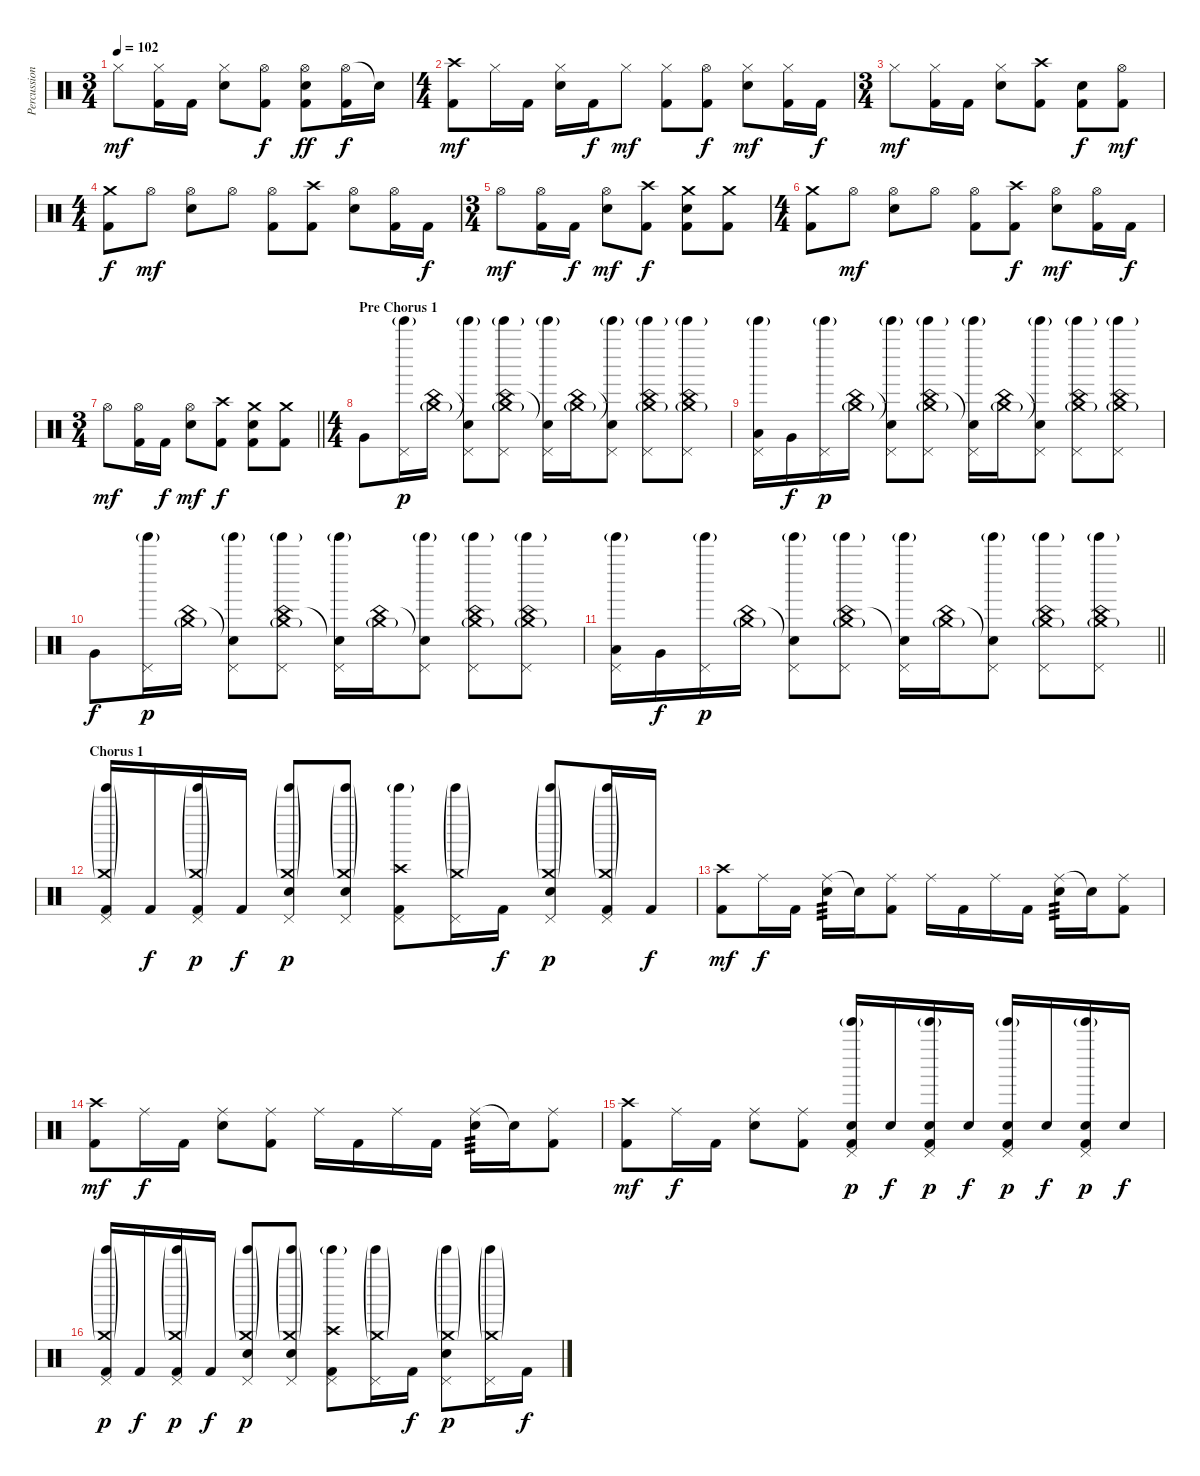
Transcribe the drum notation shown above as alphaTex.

\track ("Percussions" "Percussion") {instrument percussion}
\staff {score}
\articulation defaults
\ts (3 4)
\tempo 102
\clef neutral
\ks c "Hi-Hat (closed)".8{dy mf}
("Hi-Hat (closed)" "Kick (hit) 2").16 "Kick (hit) 2".16 ("Hi-Hat (closed)" "Electric Snare (hit)").8 ("Hi-Hat (open)" "Kick (hit) 2").8{dy f} ("Hi-Hat (open)" "Electric Snare (hit)" "Kick (hit) 2").8{dy ff} ("Hi-Hat (open)" "Kick (hit) 2").16{dy f} "Snare (hit)"{t}.16 |
\ts (4 4)
("Crash high (hit)" "Kick (hit) 2").8{dy mf} "Hi-Hat (closed)".16 "Kick (hit) 2".16 ("Hi-Hat (closed)" "Electric Snare (hit)").16 "Kick (hit) 2".16{dy f} "Hi-Hat (closed)".8{dy mf} ("Hi-Hat (closed)" "Kick (hit) 2").8 ("Hi-Hat (open)" "Kick (hit) 2").8{dy f} ("Hi-Hat (closed)" "Electric Snare (hit)").8{dy mf} ("Hi-Hat (closed)" "Kick (hit) 2").16 "Kick (hit) 2".16{dy f} |
\ts (3 4)
"Hi-Hat (closed)".8{dy mf} ("Hi-Hat (closed)" "Kick (hit) 2").16 "Kick (hit) 2".16 ("Hi-Hat (closed)" "Electric Snare (hit)").8 ("Crash high (hit)" "Kick (hit) 2").8 ("Electric Snare (hit)" "Kick (hit) 2").8{dy f} ("Hi-Hat (open)" "Kick (hit) 2").8{dy mf} |
\ts (4 4)
("Crash medium (hit)" "Kick (hit) 2").8{dy f} "Hi-Hat (open)".8{dy mf} ("Hi-Hat (open)" "Electric Snare (hit)").8 "Hi-Hat (open)".8 ("Hi-Hat (open)" "Kick (hit) 2").8 ("Crash high (hit)" "Kick (hit) 2").8 ("Hi-Hat (open)" "Electric Snare (hit)").8 ("Hi-Hat (open)" "Kick (hit) 2").16 "Kick (hit) 2".16{dy f} |
\ts (3 4)
"Hi-Hat (open)".8{dy mf} ("Hi-Hat (open)" "Kick (hit) 2").16 "Kick (hit) 2".16{dy f} ("Hi-Hat (open)" "Electric Snare (hit)").8{dy mf} ("Crash high (hit)" "Kick (hit) 2").8{dy f} ("Crash medium (hit)" "Electric Snare (hit)" "Kick (hit) 2").8 ("Crash medium (hit)" "Kick (hit) 2").8 |
\ts (4 4)
("Crash medium (hit)" "Kick (hit) 2").8 "Hi-Hat (open)".8{dy mf} ("Hi-Hat (open)" "Electric Snare (hit)").8 "Hi-Hat (open)".8 ("Hi-Hat (open)" "Kick (hit) 2").8 ("Crash high (hit)" "Kick (hit) 2").8{dy f} ("Hi-Hat (open)" "Electric Snare (hit)").8{dy mf} ("Hi-Hat (open)" "Kick (hit) 2").16 "Kick (hit) 2".16{dy f} |
\ts (3 4)
\barLineRight lightlight "Hi-Hat (open)".8{dy mf}
("Hi-Hat (open)" "Kick (hit) 2").16 "Kick (hit) 2".16{dy f} ("Hi-Hat (open)" "Electric Snare (hit)").8{dy mf} ("Crash high (hit)" "Kick (hit) 2").8{dy f} ("Crash medium (hit)" "Electric Snare (hit)" "Kick (hit) 2").8 ("Crash medium (hit)" "Kick (hit) 2").8 |
\ts (4 4)
\section ("" "Pre Chorus 1")
"Very Low Tom (hit)".8 ("Tinkle Bell (hit)"{g} "Pedal Hi-Hat (hit)").16{dy p} ("China (hit)" "Crash medium (hit)"{g}).16 ("Snare (hit)"{t} "Tinkle Bell (hit)"{g} "Pedal Hi-Hat (hit)").8 ("China (hit)" "Crash medium (hit)"{g} "Tinkle Bell (hit)"{g} "Pedal Hi-Hat (hit)").8 ("Snare (hit)"{t} "Tinkle Bell (hit)"{g} "Pedal Hi-Hat (hit)").16 ("China (hit)" "Crash medium (hit)"{g}).16 ("Snare (hit)"{t} "Tinkle Bell (hit)"{g} "Pedal Hi-Hat (hit)").8 ("China (hit)" "Crash medium (hit)"{g} "Tinkle Bell (hit)"{g} "Pedal Hi-Hat (hit)").8 ("China (hit)" "Crash medium (hit)"{g} "Tinkle Bell (hit)"{g} "Pedal Hi-Hat (hit)").8 |
("Tinkle Bell (hit)"{g} "Pedal Hi-Hat (hit)" "Low Floor Tom (hit)").16 "Very Low Tom (hit)".16{dy f} ("Tinkle Bell (hit)"{g} "Pedal Hi-Hat (hit)").16{dy p} ("China (hit)" "Crash medium (hit)"{g}).16 ("Snare (hit)"{t} "Tinkle Bell (hit)"{g} "Pedal Hi-Hat (hit)").8 ("China (hit)" "Crash medium (hit)"{g} "Tinkle Bell (hit)"{g} "Pedal Hi-Hat (hit)").8 ("Snare (hit)"{t} "Tinkle Bell (hit)"{g} "Pedal Hi-Hat (hit)").16 ("China (hit)" "Crash medium (hit)"{g}).16 ("Snare (hit)"{t} "Tinkle Bell (hit)"{g} "Pedal Hi-Hat (hit)").8 ("China (hit)" "Crash medium (hit)"{g} "Tinkle Bell (hit)"{g} "Pedal Hi-Hat (hit)").8 ("China (hit)" "Crash medium (hit)"{g} "Tinkle Bell (hit)"{g} "Pedal Hi-Hat (hit)").8 |
"Very Low Tom (hit)".8{dy f} ("Tinkle Bell (hit)"{g} "Pedal Hi-Hat (hit)").16{dy p} ("China (hit)" "Crash medium (hit)"{g}).16 ("Snare (hit)"{t} "Tinkle Bell (hit)"{g} "Pedal Hi-Hat (hit)").8 ("China (hit)" "Crash medium (hit)"{g} "Tinkle Bell (hit)"{g} "Pedal Hi-Hat (hit)").8 ("Snare (hit)"{t} "Tinkle Bell (hit)"{g} "Pedal Hi-Hat (hit)").16 ("China (hit)" "Crash medium (hit)"{g}).16 ("Snare (hit)"{t} "Tinkle Bell (hit)"{g} "Pedal Hi-Hat (hit)").8 ("China (hit)" "Crash medium (hit)"{g} "Tinkle Bell (hit)"{g} "Pedal Hi-Hat (hit)").8 ("China (hit)" "Crash medium (hit)"{g} "Tinkle Bell (hit)"{g} "Pedal Hi-Hat (hit)").8 |
\barLineRight lightlight
("Tinkle Bell (hit)"{g} "Pedal Hi-Hat (hit)" "Low Floor Tom (hit)").16 "Very Low Tom (hit)".16{dy f} ("Tinkle Bell (hit)"{g} "Pedal Hi-Hat (hit)").16{dy p} ("China (hit)" "Crash medium (hit)"{g}).16 ("Snare (hit)"{t} "Tinkle Bell (hit)"{g} "Pedal Hi-Hat (hit)").8 ("China (hit)" "Crash medium (hit)"{g} "Tinkle Bell (hit)"{g} "Pedal Hi-Hat (hit)").8 ("Snare (hit)"{t} "Tinkle Bell (hit)"{g} "Pedal Hi-Hat (hit)").16 ("China (hit)" "Crash medium (hit)"{g}).16 ("Snare (hit)"{t} "Tinkle Bell (hit)"{g} "Pedal Hi-Hat (hit)").8 ("China (hit)" "Crash medium (hit)"{g} "Tinkle Bell (hit)"{g} "Pedal Hi-Hat (hit)").8 ("China (hit)" "Crash medium (hit)"{g} "Tinkle Bell (hit)"{g} "Pedal Hi-Hat (hit)").8 |
\section ("" "Chorus 1")
("Crash medium (hit)"{g} "Tinkle Bell (hit)"{g} "Pedal Hi-Hat (hit)" "Kick (hit) 2").16 "Kick (hit) 2".16{dy f} ("Crash medium (hit)"{g} "Tinkle Bell (hit)"{g} "Pedal Hi-Hat (hit)" "Kick (hit) 2").16{dy p} "Kick (hit) 2".16{dy f} ("Crash medium (hit)"{g} "Tinkle Bell (hit)"{g} "Pedal Hi-Hat (hit)" "Electric Snare (hit)").8{dy p} ("Crash medium (hit)"{g} "Tinkle Bell (hit)"{g} "Pedal Hi-Hat (hit)" "Electric Snare (hit)").8 ("Crash high (hit)" "Tinkle Bell (hit)"{g} "Pedal Hi-Hat (hit)" "Kick (hit) 2").8 ("Crash medium (hit)"{g} "Tinkle Bell (hit)"{g} "Pedal Hi-Hat (hit)").16 "Kick (hit) 2".16{dy f} ("Crash medium (hit)"{g} "Tinkle Bell (hit)"{g} "Pedal Hi-Hat (hit)" "Electric Snare (hit)").8{dy p} ("Crash medium (hit)"{g} "Tinkle Bell (hit)"{g} "Pedal Hi-Hat (hit)" "Kick (hit) 2").16 "Kick (hit) 2".16{dy f} |
("Crash high (hit)" "Kick (hit) 2").8{dy mf} "Ride (middle)".16{dy f} "Kick (hit) 2".16 ("Ride (middle)" "Electric Snare (hit)").16{tp 3} "Snare (hit)"{t}.16 ("Ride (middle)" "Kick (hit) 2").8 "Ride (middle)".16 "Kick (hit) 2".16 "Ride (middle)".16 "Kick (hit) 2".16 ("Ride (middle)" "Electric Snare (hit)").16{tp 3} "Snare (hit)"{t}.16 ("Ride (middle)" "Kick (hit) 2").8 |
("Crash high (hit)" "Kick (hit) 2").8{dy mf} "Ride (middle)".16{dy f} "Kick (hit) 2".16 ("Ride (middle)" "Electric Snare (hit)").8 ("Ride (middle)" "Kick (hit) 2").8 "Ride (middle)".16 "Kick (hit) 2".16 "Ride (middle)".16 "Kick (hit) 2".16 ("Ride (middle)" "Electric Snare (hit)").16{tp 3} "Snare (hit)"{t}.16 ("Ride (middle)" "Kick (hit) 2").8 |
("Crash high (hit)" "Kick (hit) 2").8{dy mf} "Ride (middle)".16{dy f} "Kick (hit) 2".16 ("Ride (middle)" "Electric Snare (hit)").8 ("Ride (middle)" "Kick (hit) 2").8 ("Tinkle Bell (hit)"{g} "Pedal Hi-Hat (hit)" "Electric Snare (hit)" "Kick (hit) 2").16{dy p} "Electric Snare (hit)".16{dy f} ("Tinkle Bell (hit)"{g} "Pedal Hi-Hat (hit)" "Electric Snare (hit)" "Kick (hit) 2").16{dy p} "Electric Snare (hit)".16{dy f} ("Tinkle Bell (hit)"{g} "Pedal Hi-Hat (hit)" "Electric Snare (hit)" "Kick (hit) 2").16{dy p} "Electric Snare (hit)".16{dy f} ("Tinkle Bell (hit)"{g} "Pedal Hi-Hat (hit)" "Electric Snare (hit)" "Kick (hit) 2").16{dy p} "Electric Snare (hit)".16{dy f} |
("Crash medium (hit)"{g} "Tinkle Bell (hit)"{g} "Pedal Hi-Hat (hit)" "Kick (hit) 2").16{dy p} "Kick (hit) 2".16{dy f} ("Crash medium (hit)"{g} "Tinkle Bell (hit)"{g} "Pedal Hi-Hat (hit)" "Kick (hit) 2").16{dy p} "Kick (hit) 2".16{dy f} ("Crash medium (hit)"{g} "Tinkle Bell (hit)"{g} "Pedal Hi-Hat (hit)" "Electric Snare (hit)").8{dy p} ("Crash medium (hit)"{g} "Tinkle Bell (hit)"{g} "Pedal Hi-Hat (hit)" "Electric Snare (hit)").8 ("Crash high (hit)" "Tinkle Bell (hit)"{g} "Pedal Hi-Hat (hit)" "Kick (hit) 2").8 ("Crash medium (hit)"{g} "Tinkle Bell (hit)"{g} "Pedal Hi-Hat (hit)").16 "Kick (hit) 2".16{dy f} ("Crash medium (hit)"{g} "Tinkle Bell (hit)"{g} "Pedal Hi-Hat (hit)" "Electric Snare (hit)").8{dy p} ("Crash medium (hit)"{g} "Tinkle Bell (hit)"{g} "Pedal Hi-Hat (hit)").16 "Kick (hit) 2".16{dy f}
